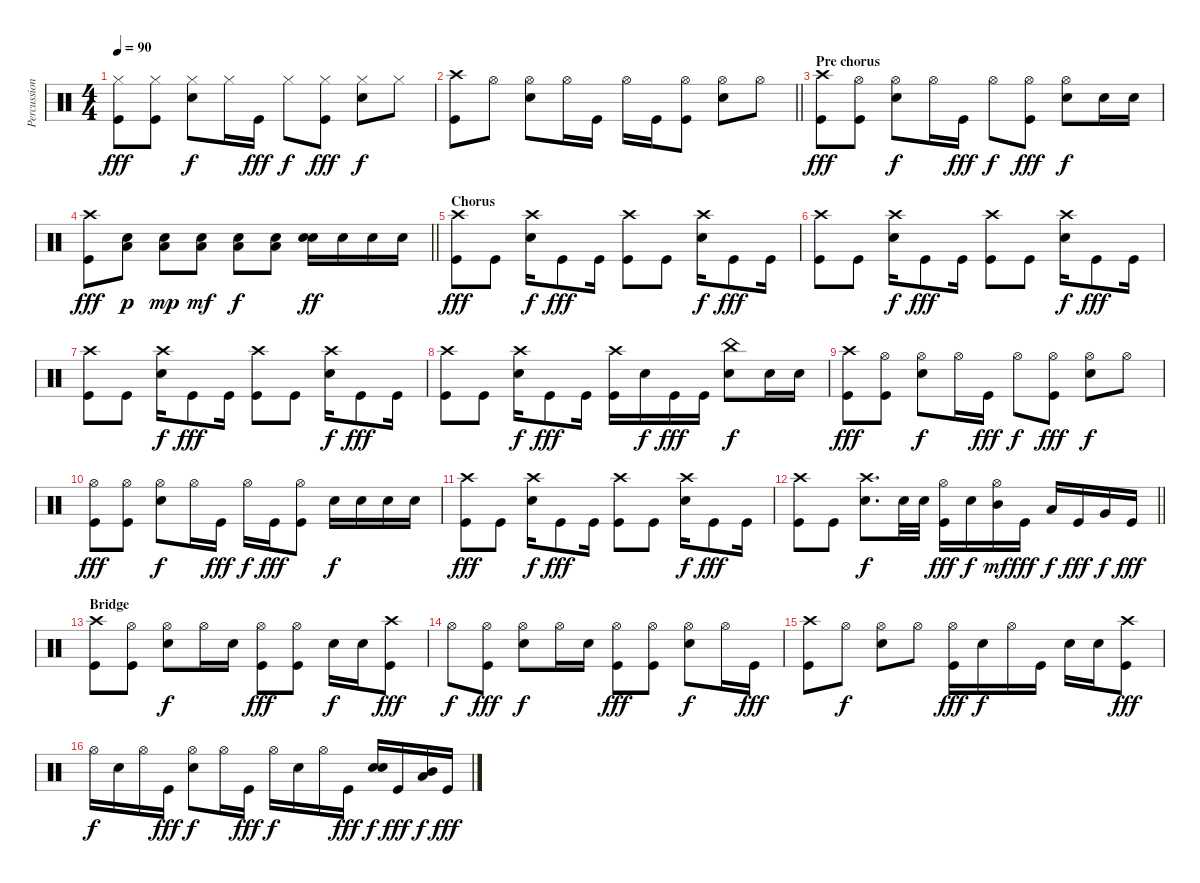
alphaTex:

\track ("Percussion" "Percussion") {instrument percussion}
\staff {score}
\articulation defaults
\ts (4 4)
\tempo 90
\clef neutral
\ks c
("Hi-Hat (closed)" "Kick (hit)").8{dy fff} ("Hi-Hat (closed)" "Kick (hit)").8 ("Hi-Hat (closed)" "Electric Snare (hit)").8{dy f} "Hi-Hat (closed)".16 "Kick (hit)".16{dy fff} "Hi-Hat (closed)".8{dy f} ("Hi-Hat (closed)" "Kick (hit)").8{dy fff} ("Hi-Hat (closed)" "Electric Snare (hit)").8{dy f} "Hi-Hat (closed)".8 |
\barLineRight lightlight
("Crash high (hit)" "Kick (hit)").8 "Hi-Hat (open)".8 ("Hi-Hat (open)" "Electric Snare (hit)").8 "Hi-Hat (open)".16 "Kick (hit)".16 "Hi-Hat (open)".16 "Kick (hit)".16 ("Hi-Hat (open)" "Kick (hit)").8 ("Hi-Hat (open)" "Electric Snare (hit)").8 "Hi-Hat (open)".8 |
\section ("" "Pre chorus")
("Crash high (hit)" "Kick (hit)").8{dy fff} ("Hi-Hat (open)" "Kick (hit)").8 ("Hi-Hat (open)" "Electric Snare (hit)").8{dy f} "Hi-Hat (open)".16 "Kick (hit)".16{dy fff} "Hi-Hat (open)".8{dy f} ("Hi-Hat (open)" "Kick (hit)").8{dy fff} ("Hi-Hat (open)" "Electric Snare (hit)").8{dy f} "Electric Snare (hit)".16 "Electric Snare (hit)".16 |
\barLineRight lightlight
("Crash high (hit)" "Kick (hit)").8{dy fff} ("Low Floor Tom (hit)" "Electric Snare (hit)").8{dy p} ("Low Floor Tom (hit)" "Electric Snare (hit)").8{dy mp} ("Low Floor Tom (hit)" "Electric Snare (hit)").8{dy mf} ("Low Floor Tom (hit)" "Electric Snare (hit)").8{dy f} ("Low Floor Tom (hit)" "Electric Snare (hit)").8 ("Electric Snare (hit)" "Electric Snare (hit)").16{bd 60 dy ff} "Electric Snare (hit)".16 "Electric Snare (hit)".16 "Electric Snare (hit)".16 |
\section ("" "Chorus")
("Crash high (hit)" "Kick (hit)").8{dy fff} "Kick (hit)".8 ("Crash high (hit)" "Electric Snare (hit)").16{dy f} "Kick (hit)".8{dy fff} "Kick (hit)".16 ("Crash high (hit)" "Kick (hit)").8 "Kick (hit)".8 ("Crash high (hit)" "Electric Snare (hit)").16{dy f} "Kick (hit)".8{dy fff} "Kick (hit)".16 |
("Crash high (hit)" "Kick (hit)").8 "Kick (hit)".8 ("Crash high (hit)" "Electric Snare (hit)").16{dy f} "Kick (hit)".8{dy fff} "Kick (hit)".16 ("Crash high (hit)" "Kick (hit)").8 "Kick (hit)".8 ("Crash high (hit)" "Electric Snare (hit)").16{dy f} "Kick (hit)".8{dy fff} "Kick (hit)".16 |
("Crash high (hit)" "Kick (hit)").8 "Kick (hit)".8 ("Crash high (hit)" "Electric Snare (hit)").16{dy f} "Kick (hit)".8{dy fff} "Kick (hit)".16 ("Crash high (hit)" "Kick (hit)").8 "Kick (hit)".8 ("Crash high (hit)" "Electric Snare (hit)").16{dy f} "Kick (hit)".8{dy fff} "Kick (hit)".16 |
("Crash high (hit)" "Kick (hit)").8 "Kick (hit)".8 ("Crash high (hit)" "Electric Snare (hit)").16{dy f} "Kick (hit)".8{dy fff} "Kick (hit)".16 ("Crash high (hit)" "Kick (hit)").16 "Electric Snare (hit)".16{dy f} "Kick (hit)".16{dy fff} "Kick (hit)".16 ("China (hit)" "Electric Snare (hit)").8{dy f} "Electric Snare (hit)".16 "Electric Snare (hit)".16 |
("Crash high (hit)" "Kick (hit)").8{dy fff} ("Hi-Hat (open)" "Kick (hit)").8 ("Hi-Hat (open)" "Electric Snare (hit)").8{dy f} "Hi-Hat (open)".16 "Kick (hit)".16{dy fff} "Hi-Hat (open)".8{dy f} ("Hi-Hat (open)" "Kick (hit)").8{dy fff} ("Hi-Hat (open)" "Electric Snare (hit)").8{dy f} "Hi-Hat (open)".8 |
("Hi-Hat (open)" "Kick (hit)").8{dy fff} ("Hi-Hat (open)" "Kick (hit)").8 ("Hi-Hat (open)" "Electric Snare (hit)").8{dy f} "Hi-Hat (open)".16 "Kick (hit)".16{dy fff} "Hi-Hat (open)".16{dy f} "Kick (hit)".16{dy fff} ("Hi-Hat (open)" "Kick (hit)").8 "Electric Snare (hit)".16{dy f} "Electric Snare (hit)".16 "Electric Snare (hit)".16 "Electric Snare (hit)".16 |
("Crash high (hit)" "Kick (hit)").8{dy fff} "Kick (hit)".8 ("Crash high (hit)" "Electric Snare (hit)").16{dy f} "Kick (hit)".8{dy fff} "Kick (hit)".16 ("Crash high (hit)" "Kick (hit)").8 "Kick (hit)".8 ("Crash high (hit)" "Electric Snare (hit)").16{dy f} "Kick (hit)".8{dy fff} "Kick (hit)".16 |
\barLineRight lightlight
("Crash high (hit)" "Kick (hit)").8 "Kick (hit)".8 ("Crash high (hit)" "Electric Snare (hit)").8{d dy f} "Electric Snare (hit)".32 "Electric Snare (hit)".32 ("Hi-Hat (open)" "Kick (hit)").16{dy fff} "Electric Snare (hit)".16{dy f} ("Mid Tom (hit)" "Hi-Hat (open)").16{dy mf} "Kick (hit)".16{dy fff} "Low Tom (hit)".16{dy f} "Kick (hit)".16{dy fff} "Very Low Tom (hit)".16{dy f} "Kick (hit)".16{dy fff} |
\section ("" "Bridge")
("Crash high (hit)" "Kick (hit)").8 ("Hi-Hat (open)" "Kick (hit)").8 ("Hi-Hat (open)" "Electric Snare (hit)").8{dy f} "Hi-Hat (open)".16 "Electric Snare (hit)".16 ("Hi-Hat (open)" "Kick (hit)").8{dy fff} ("Hi-Hat (open)" "Kick (hit)").8 "Electric Snare (hit)".16{dy f} "Electric Snare (hit)".16 ("Crash high (hit)" "Kick (hit)").8{dy fff} |
"Hi-Hat (open)".8{dy f} ("Hi-Hat (open)" "Kick (hit)").8{dy fff} ("Hi-Hat (open)" "Electric Snare (hit)").8{dy f} "Hi-Hat (open)".16 "Electric Snare (hit)".16 ("Hi-Hat (open)" "Kick (hit)").8{dy fff} ("Hi-Hat (open)" "Kick (hit)").8 ("Hi-Hat (open)" "Electric Snare (hit)").8{dy f} "Hi-Hat (open)".16 "Kick (hit)".16{dy fff} |
("Crash high (hit)" "Kick (hit)").8 "Hi-Hat (open)".8{dy f} ("Hi-Hat (open)" "Electric Snare (hit)").8 "Hi-Hat (open)".8 ("Hi-Hat (open)" "Kick (hit)").16{dy fff} "Electric Snare (hit)".16{dy f} "Hi-Hat (open)".16 "Kick (hit)".16 "Electric Snare (hit)".16 "Electric Snare (hit)".16 ("Crash high (hit)" "Kick (hit)").8{dy fff} |
"Hi-Hat (open)".16{dy f} "Electric Snare (hit)".16 "Hi-Hat (open)".16 "Kick (hit)".16{dy fff} ("Hi-Hat (open)" "Electric Snare (hit)").8{dy f} "Hi-Hat (open)".16 "Kick (hit)".16{dy fff} "Hi-Hat (open)".16{dy f} "Electric Snare (hit)".16 "Hi-Hat (open)".16 "Kick (hit)".16{dy fff} ("Electric Snare (hit)" "Electric Snare (hit)").16{bd 60 dy f} "Kick (hit)".16{dy fff} ("Mid Tom (hit)" "Low Tom (hit)").16{bd 60 dy f} "Kick (hit)".16{dy fff}
